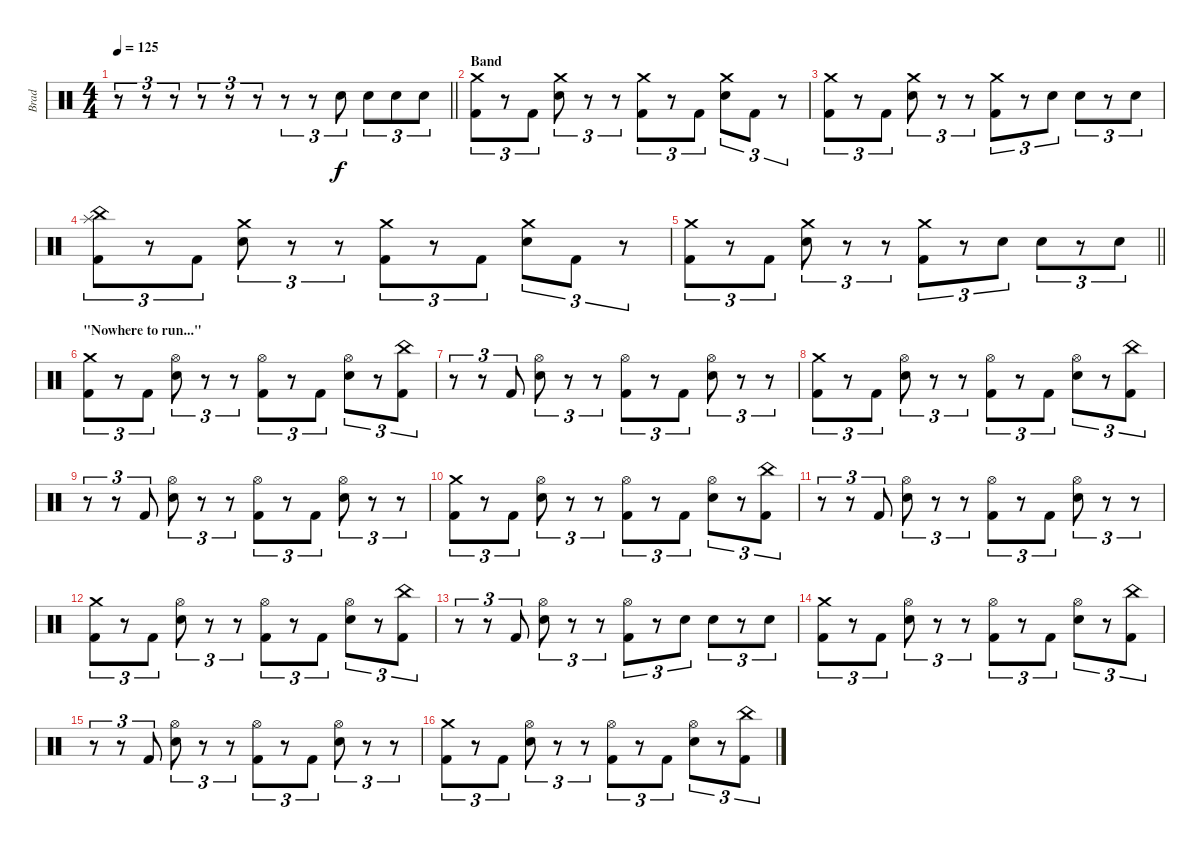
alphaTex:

\track ("Brad" "Brad") {instrument percussion}
\staff {score}
\articulation defaults
\ts (4 4)
\tempo 125
\clef neutral
\barLineRight lightlight
\ks c
r.8{tu (3 2) dy f} r.8{tu (3 2)} r.8{tu (3 2)} r.8{tu (3 2)} r.8{tu (3 2)} r.8{tu (3 2)} r.8{tu (3 2)} r.8{tu (3 2)} "Electric Snare (hit)".8{tu (3 2)} "Electric Snare (hit)".8{tu (3 2)} "Electric Snare (hit)".8{tu (3 2)} "Electric Snare (hit)".8{tu (3 2)} |
\section ("" "Band")
("Crash medium (hit)" "Kick (hit) 2").8{tu (3 2)} r.8{tu (3 2)} "Kick (hit) 2".8{tu (3 2)} ("Crash medium (hit)" "Electric Snare (hit)").8{tu (3 2)} r.8{tu (3 2)} r.8{tu (3 2)} ("Crash medium (hit)" "Kick (hit) 2").8{tu (3 2)} r.8{tu (3 2)} "Kick (hit) 2".8{tu (3 2)} ("Crash medium (hit)" "Electric Snare (hit)").8{tu (3 2)} "Kick (hit) 2".8{tu (3 2)} r.8{tu (3 2)} |
("Crash medium (hit)" "Kick (hit) 2").8{tu (3 2)} r.8{tu (3 2)} "Kick (hit) 2".8{tu (3 2)} ("Crash medium (hit)" "Electric Snare (hit)").8{tu (3 2)} r.8{tu (3 2)} r.8{tu (3 2)} ("Crash medium (hit)" "Kick (hit) 2").8{tu (3 2)} r.8{tu (3 2)} "Electric Snare (hit)".8{tu (3 2)} "Electric Snare (hit)".8{tu (3 2)} r.8{tu (3 2)} "Electric Snare (hit)".8{tu (3 2)} |
("Splash (hit)" "China (hit)" "Kick (hit) 2").8{tu (3 2)} r.8{tu (3 2)} "Kick (hit) 2".8{tu (3 2)} ("Crash medium (hit)" "Electric Snare (hit)").8{tu (3 2)} r.8{tu (3 2)} r.8{tu (3 2)} ("Crash medium (hit)" "Kick (hit) 2").8{tu (3 2)} r.8{tu (3 2)} "Kick (hit) 2".8{tu (3 2)} ("Crash medium (hit)" "Electric Snare (hit)").8{tu (3 2)} "Kick (hit) 2".8{tu (3 2)} r.8{tu (3 2)} |
\barLineRight lightlight
("Crash medium (hit)" "Kick (hit) 2").8{tu (3 2)} r.8{tu (3 2)} "Kick (hit) 2".8{tu (3 2)} ("Crash medium (hit)" "Electric Snare (hit)").8{tu (3 2)} r.8{tu (3 2)} r.8{tu (3 2)} ("Crash medium (hit)" "Kick (hit) 2").8{tu (3 2)} r.8{tu (3 2)} "Electric Snare (hit)".8{tu (3 2)} "Electric Snare (hit)".8{tu (3 2)} r.8{tu (3 2)} "Electric Snare (hit)".8{tu (3 2)} |
\section ("" "\"Nowhere to run...\"")
("Crash medium (hit)" "Kick (hit) 2").8{tu (3 2)} r.8{tu (3 2)} "Kick (hit) 2".8{tu (3 2)} ("Hi-Hat (open)" "Electric Snare (hit)").8{tu (3 2)} r.8{tu (3 2)} r.8{tu (3 2)} ("Hi-Hat (open)" "Kick (hit) 2").8{tu (3 2)} r.8{tu (3 2)} "Kick (hit) 2".8{tu (3 2)} ("Hi-Hat (open)" "Electric Snare (hit)").8{tu (3 2)} r.8{tu (3 2)} ("China (hit)" "Kick (hit) 2").8{tu (3 2)} |
r.8{tu (3 2)} r.8{tu (3 2)} "Kick (hit) 2".8{tu (3 2)} ("Hi-Hat (open)" "Electric Snare (hit)").8{tu (3 2)} r.8{tu (3 2)} r.8{tu (3 2)} ("Hi-Hat (open)" "Kick (hit) 2").8{tu (3 2)} r.8{tu (3 2)} "Kick (hit) 2".8{tu (3 2)} ("Hi-Hat (open)" "Electric Snare (hit)").8{tu (3 2)} r.8{tu (3 2)} r.8{tu (3 2)} |
("Crash medium (hit)" "Kick (hit) 2").8{tu (3 2)} r.8{tu (3 2)} "Kick (hit) 2".8{tu (3 2)} ("Hi-Hat (open)" "Electric Snare (hit)").8{tu (3 2)} r.8{tu (3 2)} r.8{tu (3 2)} ("Hi-Hat (open)" "Kick (hit) 2").8{tu (3 2)} r.8{tu (3 2)} "Kick (hit) 2".8{tu (3 2)} ("Hi-Hat (open)" "Electric Snare (hit)").8{tu (3 2)} r.8{tu (3 2)} ("China (hit)" "Kick (hit) 2").8{tu (3 2)} |
r.8{tu (3 2)} r.8{tu (3 2)} "Kick (hit) 2".8{tu (3 2)} ("Hi-Hat (open)" "Electric Snare (hit)").8{tu (3 2)} r.8{tu (3 2)} r.8{tu (3 2)} ("Hi-Hat (open)" "Kick (hit) 2").8{tu (3 2)} r.8{tu (3 2)} "Kick (hit) 2".8{tu (3 2)} ("Hi-Hat (open)" "Electric Snare (hit)").8{tu (3 2)} r.8{tu (3 2)} r.8{tu (3 2)} |
("Crash medium (hit)" "Kick (hit) 2").8{tu (3 2)} r.8{tu (3 2)} "Kick (hit) 2".8{tu (3 2)} ("Hi-Hat (open)" "Electric Snare (hit)").8{tu (3 2)} r.8{tu (3 2)} r.8{tu (3 2)} ("Hi-Hat (open)" "Kick (hit) 2").8{tu (3 2)} r.8{tu (3 2)} "Kick (hit) 2".8{tu (3 2)} ("Hi-Hat (open)" "Electric Snare (hit)").8{tu (3 2)} r.8{tu (3 2)} ("China (hit)" "Kick (hit) 2").8{tu (3 2)} |
r.8{tu (3 2)} r.8{tu (3 2)} "Kick (hit) 2".8{tu (3 2)} ("Hi-Hat (open)" "Electric Snare (hit)").8{tu (3 2)} r.8{tu (3 2)} r.8{tu (3 2)} ("Hi-Hat (open)" "Kick (hit) 2").8{tu (3 2)} r.8{tu (3 2)} "Kick (hit) 2".8{tu (3 2)} ("Hi-Hat (open)" "Electric Snare (hit)").8{tu (3 2)} r.8{tu (3 2)} r.8{tu (3 2)} |
("Crash medium (hit)" "Kick (hit) 2").8{tu (3 2)} r.8{tu (3 2)} "Kick (hit) 2".8{tu (3 2)} ("Hi-Hat (open)" "Electric Snare (hit)").8{tu (3 2)} r.8{tu (3 2)} r.8{tu (3 2)} ("Hi-Hat (open)" "Kick (hit) 2").8{tu (3 2)} r.8{tu (3 2)} "Kick (hit) 2".8{tu (3 2)} ("Hi-Hat (open)" "Electric Snare (hit)").8{tu (3 2)} r.8{tu (3 2)} ("China (hit)" "Kick (hit) 2").8{tu (3 2)} |
r.8{tu (3 2)} r.8{tu (3 2)} "Kick (hit) 2".8{tu (3 2)} ("Hi-Hat (open)" "Electric Snare (hit)").8{tu (3 2)} r.8{tu (3 2)} r.8{tu (3 2)} ("Hi-Hat (open)" "Kick (hit) 2").8{tu (3 2)} r.8{tu (3 2)} "Electric Snare (hit)".8{tu (3 2)} "Electric Snare (hit)".8{tu (3 2)} r.8{tu (3 2)} "Electric Snare (hit)".8{tu (3 2)} |
("Crash medium (hit)" "Kick (hit) 2").8{tu (3 2)} r.8{tu (3 2)} "Kick (hit) 2".8{tu (3 2)} ("Hi-Hat (open)" "Electric Snare (hit)").8{tu (3 2)} r.8{tu (3 2)} r.8{tu (3 2)} ("Hi-Hat (open)" "Kick (hit) 2").8{tu (3 2)} r.8{tu (3 2)} "Kick (hit) 2".8{tu (3 2)} ("Hi-Hat (open)" "Electric Snare (hit)").8{tu (3 2)} r.8{tu (3 2)} ("China (hit)" "Kick (hit) 2").8{tu (3 2)} |
r.8{tu (3 2)} r.8{tu (3 2)} "Kick (hit) 2".8{tu (3 2)} ("Hi-Hat (open)" "Electric Snare (hit)").8{tu (3 2)} r.8{tu (3 2)} r.8{tu (3 2)} ("Hi-Hat (open)" "Kick (hit) 2").8{tu (3 2)} r.8{tu (3 2)} "Kick (hit) 2".8{tu (3 2)} ("Hi-Hat (open)" "Electric Snare (hit)").8{tu (3 2)} r.8{tu (3 2)} r.8{tu (3 2)} |
("Crash medium (hit)" "Kick (hit) 2").8{tu (3 2)} r.8{tu (3 2)} "Kick (hit) 2".8{tu (3 2)} ("Hi-Hat (open)" "Electric Snare (hit)").8{tu (3 2)} r.8{tu (3 2)} r.8{tu (3 2)} ("Hi-Hat (open)" "Kick (hit) 2").8{tu (3 2)} r.8{tu (3 2)} "Kick (hit) 2".8{tu (3 2)} ("Hi-Hat (open)" "Electric Snare (hit)").8{tu (3 2)} r.8{tu (3 2)} ("China (hit)" "Kick (hit) 2").8{tu (3 2)}
